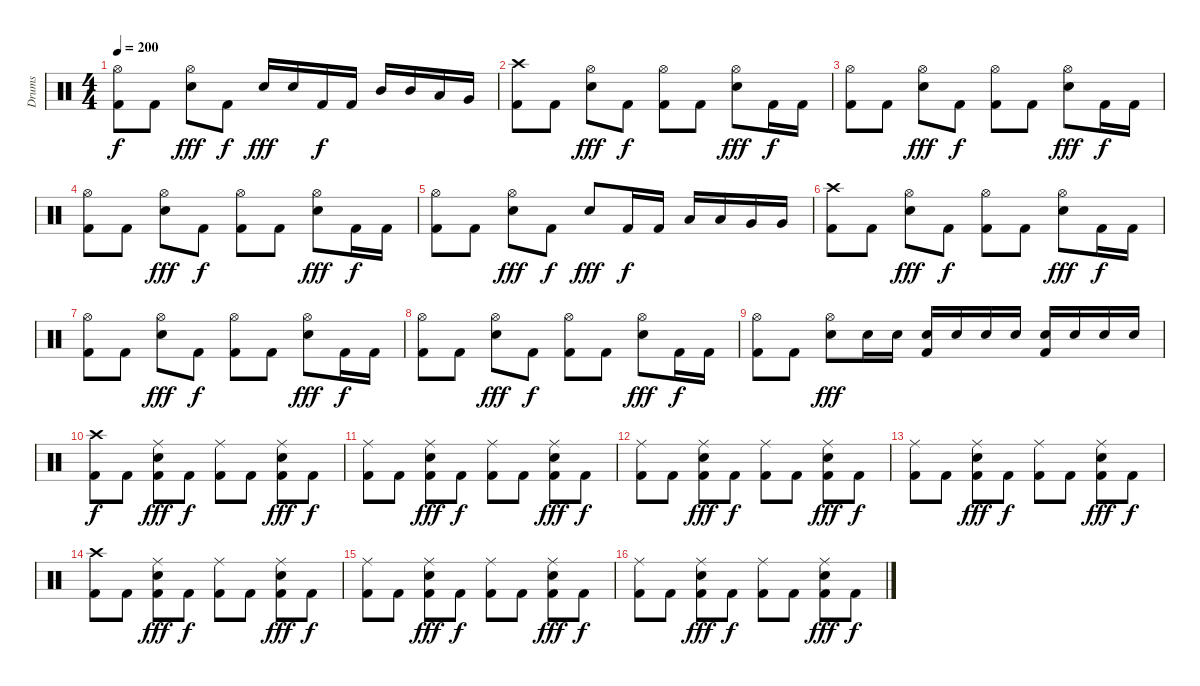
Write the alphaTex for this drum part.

\track ("Drums" "Drums") {instrument percussion}
\staff {score}
\articulation defaults
\ts (4 4)
\tempo 200
\clef neutral
\ks c
("Hi-Hat (open)" "Kick (hit) 2").8{dy f} "Kick (hit) 2".8 ("Hi-Hat (open)" "Snare (hit) 2").8{dy fff} "Kick (hit) 2".8{dy f} "Snare (hit) 2".16{dy fff} "Snare (hit) 2".16 "Kick (hit) 2".16{dy f} "Kick (hit) 2".16 "Mid Tom (hit)".16 "Mid Tom (hit)".16 "Low Tom (hit)".16 "Very Low Tom (hit)".16 |
("Crash high (hit)" "Kick (hit) 2").8 "Kick (hit) 2".8 ("Hi-Hat (open)" "Snare (hit) 2").8{dy fff} "Kick (hit) 2".8{dy f} ("Hi-Hat (open)" "Kick (hit) 2").8 "Kick (hit) 2".8 ("Hi-Hat (open)" "Snare (hit) 2").8{dy fff} "Kick (hit) 2".16{dy f} "Kick (hit) 2".16 |
("Hi-Hat (open)" "Kick (hit) 2").8 "Kick (hit) 2".8 ("Hi-Hat (open)" "Snare (hit) 2").8{dy fff} "Kick (hit) 2".8{dy f} ("Hi-Hat (open)" "Kick (hit) 2").8 "Kick (hit) 2".8 ("Hi-Hat (open)" "Snare (hit) 2").8{dy fff} "Kick (hit) 2".16{dy f} "Kick (hit) 2".16 |
("Hi-Hat (open)" "Kick (hit) 2").8 "Kick (hit) 2".8 ("Hi-Hat (open)" "Snare (hit) 2").8{dy fff} "Kick (hit) 2".8{dy f} ("Hi-Hat (open)" "Kick (hit) 2").8 "Kick (hit) 2".8 ("Hi-Hat (open)" "Snare (hit) 2").8{dy fff} "Kick (hit) 2".16{dy f} "Kick (hit) 2".16 |
("Hi-Hat (open)" "Kick (hit) 2").8 "Kick (hit) 2".8 ("Hi-Hat (open)" "Snare (hit) 2").8{dy fff} "Kick (hit) 2".8{dy f} "Snare (hit) 2".8{dy fff} "Kick (hit) 2".16{dy f} "Kick (hit) 2".16 "Low Tom (hit)".16 "Low Tom (hit)".16 "Very Low Tom (hit)".16 "Very Low Tom (hit)".16 |
("Crash high (hit)" "Kick (hit) 2").8 "Kick (hit) 2".8 ("Hi-Hat (open)" "Snare (hit) 2").8{dy fff} "Kick (hit) 2".8{dy f} ("Hi-Hat (open)" "Kick (hit) 2").8 "Kick (hit) 2".8 ("Hi-Hat (open)" "Snare (hit) 2").8{dy fff} "Kick (hit) 2".16{dy f} "Kick (hit) 2".16 |
("Hi-Hat (open)" "Kick (hit) 2").8 "Kick (hit) 2".8 ("Hi-Hat (open)" "Snare (hit) 2").8{dy fff} "Kick (hit) 2".8{dy f} ("Hi-Hat (open)" "Kick (hit) 2").8 "Kick (hit) 2".8 ("Hi-Hat (open)" "Snare (hit) 2").8{dy fff} "Kick (hit) 2".16{dy f} "Kick (hit) 2".16 |
("Hi-Hat (open)" "Kick (hit) 2").8 "Kick (hit) 2".8 ("Hi-Hat (open)" "Snare (hit) 2").8{dy fff} "Kick (hit) 2".8{dy f} ("Hi-Hat (open)" "Kick (hit) 2").8 "Kick (hit) 2".8 ("Hi-Hat (open)" "Snare (hit) 2").8{dy fff} "Kick (hit) 2".16{dy f} "Kick (hit) 2".16 |
("Hi-Hat (open)" "Kick (hit) 2").8 "Kick (hit) 2".8 ("Hi-Hat (open)" "Snare (hit) 2").8{dy fff} "Snare (hit) 2".16 "Snare (hit) 2".16 ("Snare (hit) 2" "Kick (hit) 2").16 "Snare (hit) 2".16 "Snare (hit) 2".16 "Snare (hit) 2".16 ("Snare (hit) 2" "Kick (hit) 2").16 "Snare (hit) 2".16 "Snare (hit) 2".16 "Snare (hit) 2".16 |
("Crash high (hit)" "Kick (hit) 2").8{dy f} "Kick (hit) 2".8 ("Ride (middle)" "Snare (hit) 2" "Kick (hit) 2").8{dy fff} "Kick (hit) 2".8{dy f} ("Ride (middle)" "Kick (hit) 2").8 "Kick (hit) 2".8 ("Ride (middle)" "Snare (hit) 2" "Kick (hit) 2").8{dy fff} "Kick (hit) 2".8{dy f} |
("Ride (middle)" "Kick (hit) 2").8 "Kick (hit) 2".8 ("Ride (middle)" "Snare (hit) 2" "Kick (hit) 2").8{dy fff} "Kick (hit) 2".8{dy f} ("Ride (middle)" "Kick (hit) 2").8 "Kick (hit) 2".8 ("Ride (middle)" "Snare (hit) 2" "Kick (hit) 2").8{dy fff} "Kick (hit) 2".8{dy f} |
("Ride (middle)" "Kick (hit) 2").8 "Kick (hit) 2".8 ("Ride (middle)" "Snare (hit) 2" "Kick (hit) 2").8{dy fff} "Kick (hit) 2".8{dy f} ("Ride (middle)" "Kick (hit) 2").8 "Kick (hit) 2".8 ("Ride (middle)" "Snare (hit) 2" "Kick (hit) 2").8{dy fff} "Kick (hit) 2".8{dy f} |
("Ride (middle)" "Kick (hit) 2").8 "Kick (hit) 2".8 ("Ride (middle)" "Snare (hit) 2" "Kick (hit) 2").8{dy fff} "Kick (hit) 2".8{dy f} ("Ride (middle)" "Kick (hit) 2").8 "Kick (hit) 2".8 ("Ride (middle)" "Snare (hit) 2" "Kick (hit) 2").8{dy fff} "Kick (hit) 2".8{dy f} |
("Crash high (hit)" "Kick (hit) 2").8 "Kick (hit) 2".8 ("Ride (middle)" "Snare (hit) 2" "Kick (hit) 2").8{dy fff} "Kick (hit) 2".8{dy f} ("Ride (middle)" "Kick (hit) 2").8 "Kick (hit) 2".8 ("Ride (middle)" "Snare (hit) 2" "Kick (hit) 2").8{dy fff} "Kick (hit) 2".8{dy f} |
("Ride (middle)" "Kick (hit) 2").8 "Kick (hit) 2".8 ("Ride (middle)" "Snare (hit) 2" "Kick (hit) 2").8{dy fff} "Kick (hit) 2".8{dy f} ("Ride (middle)" "Kick (hit) 2").8 "Kick (hit) 2".8 ("Ride (middle)" "Snare (hit) 2" "Kick (hit) 2").8{dy fff} "Kick (hit) 2".8{dy f} |
("Ride (middle)" "Kick (hit) 2").8 "Kick (hit) 2".8 ("Ride (middle)" "Snare (hit) 2" "Kick (hit) 2").8{dy fff} "Kick (hit) 2".8{dy f} ("Ride (middle)" "Kick (hit) 2").8 "Kick (hit) 2".8 ("Ride (middle)" "Snare (hit) 2" "Kick (hit) 2").8{dy fff} "Kick (hit) 2".8{dy f}
